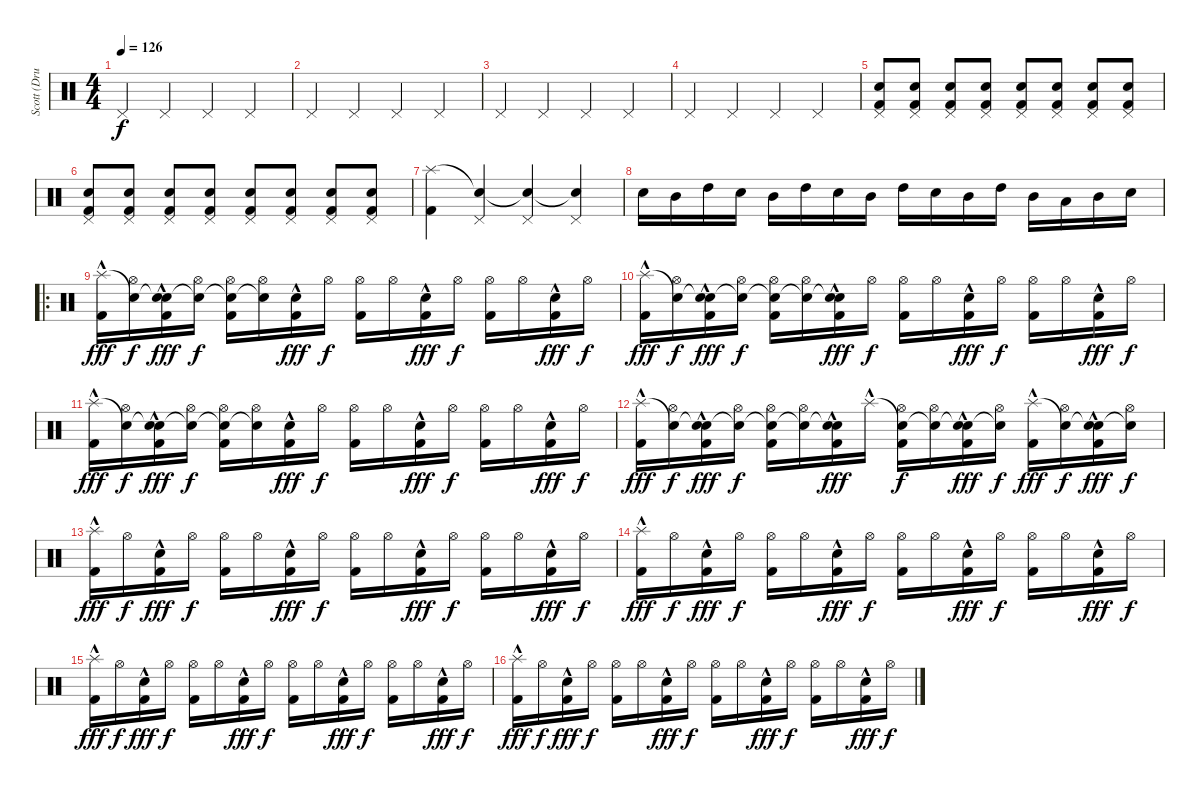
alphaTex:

\track ("Scott (Drums)" "Scott (Dru") {instrument percussion}
\staff {score}
\articulation defaults
\ts (4 4)
\tempo 126
\clef neutral
\ks c "Pedal Hi-Hat (hit)".4{dy f} "Pedal Hi-Hat (hit)".4 "Pedal Hi-Hat (hit)".4 "Pedal Hi-Hat (hit)".4
|
"Pedal Hi-Hat (hit)".4 "Pedal Hi-Hat (hit)".4 "Pedal Hi-Hat (hit)".4 "Pedal Hi-Hat (hit)".4 |
"Pedal Hi-Hat (hit)".4 "Pedal Hi-Hat (hit)".4 "Pedal Hi-Hat (hit)".4 "Pedal Hi-Hat (hit)".4 |
"Pedal Hi-Hat (hit)".4 "Pedal Hi-Hat (hit)".4 "Pedal Hi-Hat (hit)".4 "Pedal Hi-Hat (hit)".4 |
("Pedal Hi-Hat (hit)" "Electric Snare (hit)" "Kick (hit) 2").8 ("Pedal Hi-Hat (hit)" "Electric Snare (hit)" "Kick (hit) 2").8 ("Pedal Hi-Hat (hit)" "Electric Snare (hit)" "Kick (hit) 2").8 ("Pedal Hi-Hat (hit)" "Electric Snare (hit)" "Kick (hit) 2").8 ("Pedal Hi-Hat (hit)" "Electric Snare (hit)" "Kick (hit) 2").8 ("Pedal Hi-Hat (hit)" "Electric Snare (hit)" "Kick (hit) 2").8 ("Pedal Hi-Hat (hit)" "Electric Snare (hit)" "Kick (hit) 2").8 ("Pedal Hi-Hat (hit)" "Electric Snare (hit)" "Kick (hit) 2").8 |
("Pedal Hi-Hat (hit)" "Electric Snare (hit)" "Kick (hit) 2").8 ("Pedal Hi-Hat (hit)" "Electric Snare (hit)" "Kick (hit) 2").8 ("Pedal Hi-Hat (hit)" "Electric Snare (hit)" "Kick (hit) 2").8 ("Pedal Hi-Hat (hit)" "Electric Snare (hit)" "Kick (hit) 2").8 ("Pedal Hi-Hat (hit)" "Electric Snare (hit)" "Kick (hit) 2").8 ("Pedal Hi-Hat (hit)" "Electric Snare (hit)" "Kick (hit) 2").8 ("Pedal Hi-Hat (hit)" "Electric Snare (hit)" "Kick (hit) 2").8 ("Pedal Hi-Hat (hit)" "Electric Snare (hit)" "Kick (hit) 2").8 |
("Splash (hit)" "Kick (hit) 2").4 ("Snare (hit)"{t} "Pedal Hi-Hat (hit)").4 ("Snare (hit)"{t} "Pedal Hi-Hat (hit)").4 ("Snare (hit)"{t} "Pedal Hi-Hat (hit)").4 |
"Electric Snare (hit)".16 "Mid Tom (hit)".16 "High Tom (hit)".16 "Electric Snare (hit)".16 "Mid Tom (hit)".16 "High Tom (hit)".16 "Electric Snare (hit)".16 "Mid Tom (hit)".16 "High Tom (hit)".16 "Electric Snare (hit)".16 "Mid Tom (hit)".16 "High Tom (hit)".16 "Mid Tom (hit)".16 "Low Tom (hit)".16 "Mid Tom (hit)".16 "Electric Snare (hit)".16 |
\ro
("Splash (hit)"{hac} "Kick (hit) 2").16{dy fff} ("Snare (hit)"{t} "Hi-Hat (open)").16{dy f} ("Snare (hit)"{t} "Electric Snare (hit)"{hac} "Kick (hit) 2").16{dy fff} ("Snare (hit)"{t} "Hi-Hat (open)").16{dy f} ("Snare (hit)"{t} "Hi-Hat (open)" "Kick (hit) 2").16 ("Snare (hit)"{t} "Hi-Hat (open)").16 ("Electric Snare (hit)"{hac} "Kick (hit) 2").16{dy fff} "Hi-Hat (open)".16{dy f} ("Hi-Hat (open)" "Kick (hit) 2").16 "Hi-Hat (open)".16 ("Electric Snare (hit)"{hac} "Kick (hit) 2").16{dy fff} "Hi-Hat (open)".16{dy f} ("Hi-Hat (open)" "Kick (hit) 2").16 "Hi-Hat (open)".16 ("Electric Snare (hit)"{hac} "Kick (hit) 2").16{dy fff} "Hi-Hat (open)".16{dy f} |
("Splash (hit)"{hac} "Kick (hit) 2").16{dy fff} ("Snare (hit)"{t} "Hi-Hat (open)").16{dy f} ("Snare (hit)"{t} "Electric Snare (hit)"{hac} "Kick (hit) 2").16{dy fff} ("Snare (hit)"{t} "Hi-Hat (open)").16{dy f} ("Snare (hit)"{t} "Hi-Hat (open)" "Kick (hit) 2").16 ("Snare (hit)"{t} "Hi-Hat (open)").16 ("Snare (hit)"{t} "Electric Snare (hit)"{hac} "Kick (hit) 2").16{dy fff} "Hi-Hat (open)".16{dy f} ("Hi-Hat (open)" "Kick (hit) 2").16 "Hi-Hat (open)".16 ("Electric Snare (hit)"{hac} "Kick (hit) 2").16{dy fff} "Hi-Hat (open)".16{dy f} ("Hi-Hat (open)" "Kick (hit) 2").16 "Hi-Hat (open)".16 ("Electric Snare (hit)"{hac} "Kick (hit) 2").16{dy fff} "Hi-Hat (open)".16{dy f} |
("Splash (hit)"{hac} "Kick (hit) 2").16{dy fff} ("Snare (hit)"{t} "Hi-Hat (open)").16{dy f} ("Snare (hit)"{t} "Electric Snare (hit)"{hac} "Kick (hit) 2").16{dy fff} ("Snare (hit)"{t} "Hi-Hat (open)").16{dy f} ("Snare (hit)"{t} "Hi-Hat (open)" "Kick (hit) 2").16 ("Snare (hit)"{t} "Hi-Hat (open)").16 ("Electric Snare (hit)"{hac} "Kick (hit) 2").16{dy fff} "Hi-Hat (open)".16{dy f} ("Hi-Hat (open)" "Kick (hit) 2").16 "Hi-Hat (open)".16 ("Electric Snare (hit)"{hac} "Kick (hit) 2").16{dy fff} "Hi-Hat (open)".16{dy f} ("Hi-Hat (open)" "Kick (hit) 2").16 "Hi-Hat (open)".16 ("Electric Snare (hit)"{hac} "Kick (hit) 2").16{dy fff} "Hi-Hat (open)".16{dy f} |
("Splash (hit)"{hac} "Kick (hit) 2").16{dy fff} ("Snare (hit)"{t} "Hi-Hat (open)").16{dy f} ("Snare (hit)"{t} "Electric Snare (hit)"{hac} "Kick (hit) 2").16{dy fff} ("Snare (hit)"{t} "Hi-Hat (open)").16{dy f} ("Snare (hit)"{t} "Hi-Hat (open)" "Kick (hit) 2").16 ("Snare (hit)"{t} "Hi-Hat (open)").16 ("Snare (hit)"{t} "Electric Snare (hit)"{hac} "Kick (hit) 2").16{dy fff} "Splash (hit)"{hac}.16 ("Snare (hit)"{t} "Hi-Hat (open)" "Kick (hit) 2").16{dy f} ("Snare (hit)"{t} "Hi-Hat (open)").16 ("Snare (hit)"{t} "Electric Snare (hit)"{hac} "Kick (hit) 2").16{dy fff} ("Snare (hit)"{t} "Hi-Hat (open)").16{dy f} ("Splash (hit)"{hac} "Kick (hit) 2").16{dy fff} ("Snare (hit)"{t} "Hi-Hat (open)").16{dy f} ("Snare (hit)"{t} "Electric Snare (hit)"{hac} "Kick (hit) 2").16{dy fff} ("Snare (hit)"{t} "Hi-Hat (open)").16{dy f} |
("Splash (hit)"{hac} "Kick (hit) 2").16{dy fff} "Hi-Hat (open)".16{dy f} ("Electric Snare (hit)"{hac} "Kick (hit) 2").16{dy fff} "Hi-Hat (open)".16{dy f} ("Hi-Hat (open)" "Kick (hit) 2").16 "Hi-Hat (open)".16 ("Electric Snare (hit)"{hac} "Kick (hit) 2").16{dy fff} "Hi-Hat (open)".16{dy f} ("Hi-Hat (open)" "Kick (hit) 2").16 "Hi-Hat (open)".16 ("Electric Snare (hit)"{hac} "Kick (hit) 2").16{dy fff} "Hi-Hat (open)".16{dy f} ("Hi-Hat (open)" "Kick (hit) 2").16 "Hi-Hat (open)".16 ("Electric Snare (hit)"{hac} "Kick (hit) 2").16{dy fff} "Hi-Hat (open)".16{dy f} |
("Splash (hit)"{hac} "Kick (hit) 2").16{dy fff} "Hi-Hat (open)".16{dy f} ("Electric Snare (hit)"{hac} "Kick (hit) 2").16{dy fff} "Hi-Hat (open)".16{dy f} ("Hi-Hat (open)" "Kick (hit) 2").16 "Hi-Hat (open)".16 ("Electric Snare (hit)"{hac} "Kick (hit) 2").16{dy fff} "Hi-Hat (open)".16{dy f} ("Hi-Hat (open)" "Kick (hit) 2").16 "Hi-Hat (open)".16 ("Electric Snare (hit)"{hac} "Kick (hit) 2").16{dy fff} "Hi-Hat (open)".16{dy f} ("Hi-Hat (open)" "Kick (hit) 2").16 "Hi-Hat (open)".16 ("Electric Snare (hit)"{hac} "Kick (hit) 2").16{dy fff} "Hi-Hat (open)".16{dy f} |
("Splash (hit)"{hac} "Kick (hit) 2").16{dy fff} "Hi-Hat (open)".16{dy f} ("Electric Snare (hit)"{hac} "Kick (hit) 2").16{dy fff} "Hi-Hat (open)".16{dy f} ("Hi-Hat (open)" "Kick (hit) 2").16 "Hi-Hat (open)".16 ("Electric Snare (hit)"{hac} "Kick (hit) 2").16{dy fff} "Hi-Hat (open)".16{dy f} ("Hi-Hat (open)" "Kick (hit) 2").16 "Hi-Hat (open)".16 ("Electric Snare (hit)"{hac} "Kick (hit) 2").16{dy fff} "Hi-Hat (open)".16{dy f} ("Hi-Hat (open)" "Kick (hit) 2").16 "Hi-Hat (open)".16 ("Electric Snare (hit)"{hac} "Kick (hit) 2").16{dy fff} "Hi-Hat (open)".16{dy f} |
("Splash (hit)"{hac} "Kick (hit) 2").16{dy fff} "Hi-Hat (open)".16{dy f} ("Electric Snare (hit)"{hac} "Kick (hit) 2").16{dy fff} "Hi-Hat (open)".16{dy f} ("Hi-Hat (open)" "Kick (hit) 2").16 "Hi-Hat (open)".16 ("Electric Snare (hit)"{hac} "Kick (hit) 2").16{dy fff} "Hi-Hat (open)".16{dy f} ("Hi-Hat (open)" "Kick (hit) 2").16 "Hi-Hat (open)".16 ("Electric Snare (hit)"{hac} "Kick (hit) 2").16{dy fff} "Hi-Hat (open)".16{dy f} ("Hi-Hat (open)" "Kick (hit) 2").16 "Hi-Hat (open)".16 ("Electric Snare (hit)"{hac} "Kick (hit) 2").16{dy fff} "Hi-Hat (open)".16{dy f}
